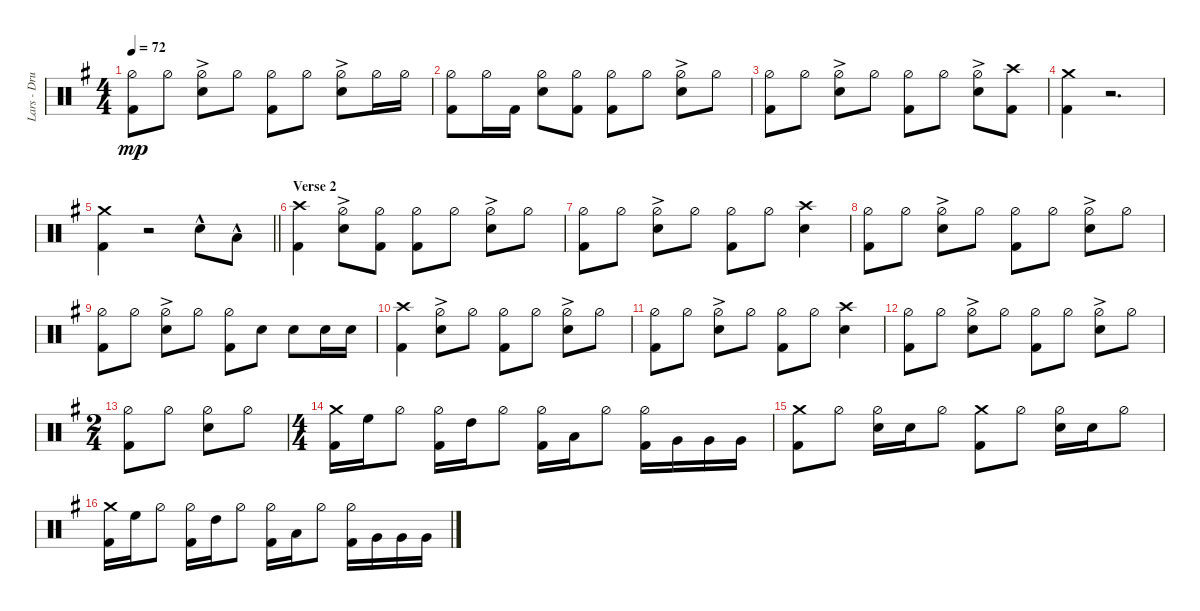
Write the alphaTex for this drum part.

\track ("Lars - Drums" "Lars - Dru") {instrument percussion}
\staff {score}
\articulation defaults
\ts (4 4)
\tempo 72
\clef neutral
\ks eminor
("Hi-Hat (half)" "Kick (hit) 2").8{dy mp} "Hi-Hat (half)".8 ("Hi-Hat (half)"{ac} "Snare (hit) 2").8 "Hi-Hat (half)".8 ("Hi-Hat (half)" "Kick (hit) 2").8 "Hi-Hat (half)".8 ("Hi-Hat (half)"{ac} "Snare (hit) 2").8 "Hi-Hat (half)".16 "Hi-Hat (half)".16 |
("Hi-Hat (half)" "Kick (hit) 2").8 "Hi-Hat (half)".16 "Kick (hit) 2".16 ("Snare (hit) 2" "Hi-Hat (half)").8 ("Hi-Hat (half)" "Kick (hit) 2").8 ("Hi-Hat (half)" "Kick (hit) 2").8 "Hi-Hat (half)".8 ("Hi-Hat (half)"{ac} "Snare (hit) 2").8 "Hi-Hat (half)".8 |
("Hi-Hat (half)" "Kick (hit) 2").8 "Hi-Hat (half)".8 ("Hi-Hat (half)"{ac} "Snare (hit) 2").8 "Hi-Hat (half)".8 ("Hi-Hat (half)" "Kick (hit) 2").8 "Hi-Hat (half)".8 ("Hi-Hat (half)"{ac} "Snare (hit) 2").8 ("Kick (hit) 2" "Crash high (hit)").8 |
("Crash medium (hit)" "Kick (hit) 2").4 r.2{d} |
\barLineRight lightlight
("Crash medium (hit)" "Kick (hit) 2").4 r.2 "Snare (hit) 2"{hac}.8 "Low Tom (hit)"{hac}.8 |
\section ("" "Verse 2")
("Crash high (hit)" "Kick (hit) 2").4{volume 8} ("Hi-Hat (half)"{ac} "Snare (hit) 2").8 ("Hi-Hat (half)" "Kick (hit) 2").8 ("Hi-Hat (half)" "Kick (hit) 2").8 "Hi-Hat (half)".8 ("Hi-Hat (half)"{ac} "Snare (hit) 2").8 "Hi-Hat (half)".8 |
("Hi-Hat (half)" "Kick (hit) 2").8 "Hi-Hat (half)".8 ("Hi-Hat (half)"{ac} "Snare (hit) 2").8 "Hi-Hat (half)".8 ("Hi-Hat (half)" "Kick (hit) 2").8 "Hi-Hat (half)".8 ("Snare (hit) 2" "Crash high (hit)").4 |
("Hi-Hat (half)" "Kick (hit) 2").8 "Hi-Hat (half)".8 ("Hi-Hat (half)"{ac} "Snare (hit) 2").8 "Hi-Hat (half)".8 ("Hi-Hat (half)" "Kick (hit) 2").8 "Hi-Hat (half)".8 ("Hi-Hat (half)"{ac} "Snare (hit) 2").8 "Hi-Hat (half)".8 |
("Hi-Hat (half)" "Kick (hit) 2").8 "Hi-Hat (half)".8 ("Hi-Hat (half)"{ac} "Snare (hit) 2").8 "Hi-Hat (half)".8 ("Hi-Hat (half)" "Kick (hit) 2").8 "Snare (hit) 2".8 "Snare (hit) 2".8 "Snare (hit) 2".16 "Snare (hit) 2".16 |
("Crash high (hit)" "Kick (hit) 2").4 ("Hi-Hat (half)"{ac} "Snare (hit) 2").8 "Hi-Hat (half)".8 ("Hi-Hat (half)" "Kick (hit) 2").8 "Hi-Hat (half)".8 ("Hi-Hat (half)"{ac} "Snare (hit) 2").8 "Hi-Hat (half)".8 |
("Hi-Hat (half)" "Kick (hit) 2").8 "Hi-Hat (half)".8 ("Hi-Hat (half)"{ac} "Snare (hit) 2").8 "Hi-Hat (half)".8 ("Hi-Hat (half)" "Kick (hit) 2").8 "Hi-Hat (half)".8 ("Snare (hit) 2" "Crash high (hit)").4 |
("Hi-Hat (half)" "Kick (hit) 2").8 "Hi-Hat (half)".8 ("Hi-Hat (half)"{ac} "Snare (hit) 2").8 "Hi-Hat (half)".8 ("Hi-Hat (half)" "Kick (hit) 2").8 "Hi-Hat (half)".8 ("Hi-Hat (half)"{ac} "Snare (hit) 2").8 "Hi-Hat (half)".8 |
\ts (2 4)
("Hi-Hat (half)" "Kick (hit) 2").8 "Hi-Hat (half)".8 ("Hi-Hat (half)" "Snare (hit) 2").8 "Hi-Hat (half)".8 |
\ts (4 4)
("Crash medium (hit)" "Kick (hit) 2").16 "High Floor Tom (hit)".16 "Hi-Hat (half)".8 ("Kick (hit) 2" "Hi-Hat (half)").16 "High Tom (hit)".16 "Hi-Hat (half)".8 ("Hi-Hat (half)" "Kick (hit) 2").16 "Low Tom (hit)".16 "Hi-Hat (half)".8 ("Hi-Hat (half)" "Kick (hit) 2").16 "Very Low Tom (hit)".16 "Very Low Tom (hit)".16 "Very Low Tom (hit)".16 |
("Kick (hit) 2" "Crash medium (hit)").8 "Hi-Hat (half)".8 ("Hi-Hat (half)" "Snare (hit) 2").16 "Snare (hit) 2".16 "Hi-Hat (half)".8 ("Kick (hit) 2" "Crash medium (hit)").8 "Hi-Hat (half)".8 ("Hi-Hat (half)" "Snare (hit) 2").16 "Snare (hit) 2".16 "Hi-Hat (half)".8 |
("Crash medium (hit)" "Kick (hit) 2").16 "High Floor Tom (hit)".16 "Hi-Hat (half)".8 ("Kick (hit) 2" "Hi-Hat (half)").16 "High Tom (hit)".16 "Hi-Hat (half)".8 ("Hi-Hat (half)" "Kick (hit) 2").16 "Low Tom (hit)".16 "Hi-Hat (half)".8 ("Hi-Hat (half)" "Kick (hit) 2").16 "Very Low Tom (hit)".16 "Very Low Tom (hit)".16 "Very Low Tom (hit)".16
